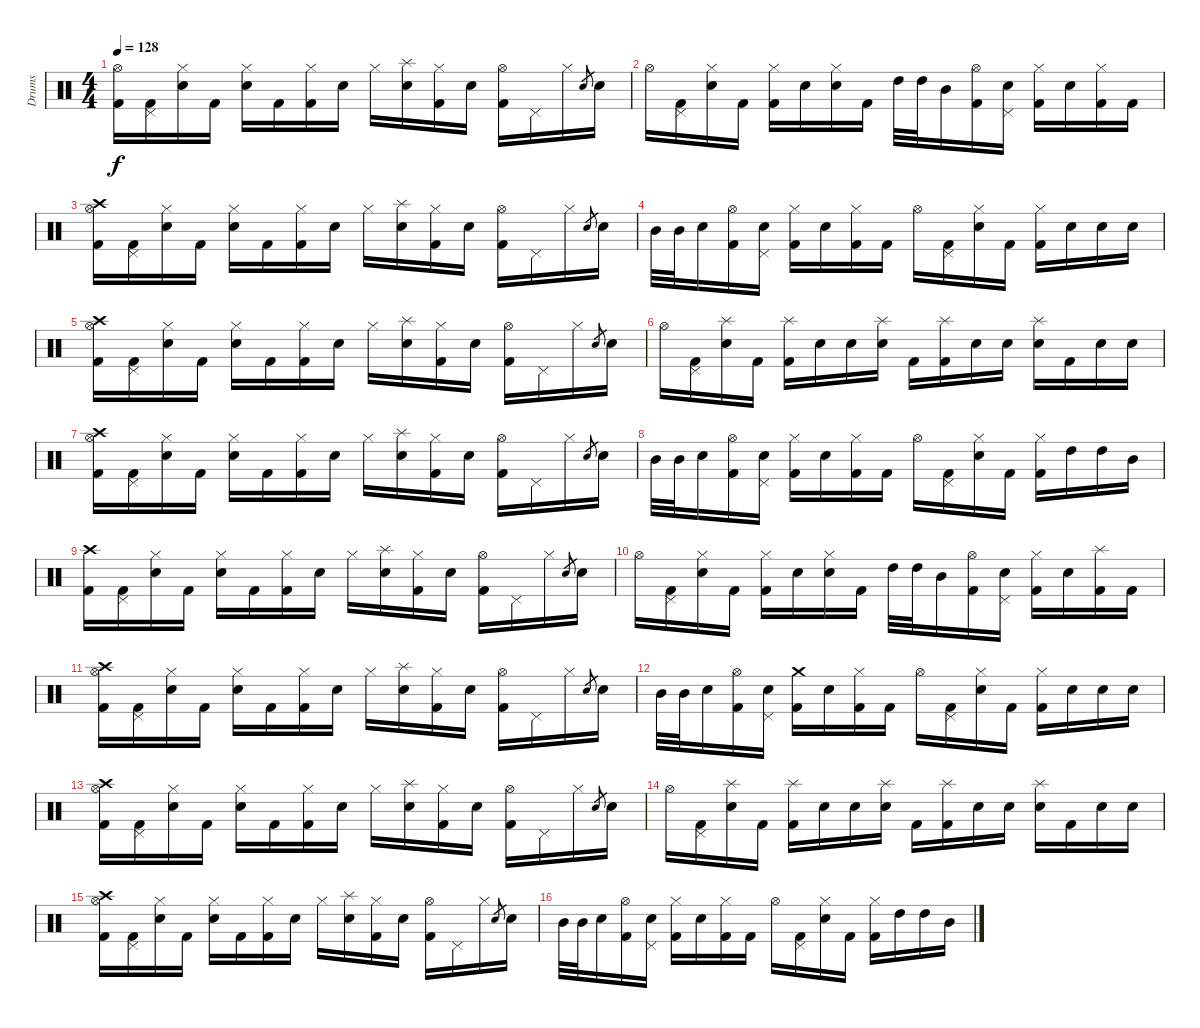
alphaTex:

\track ("Drums" "Drums") {instrument percussion}
\staff {score}
\articulation defaults
\ts (4 4)
\tempo 128
\clef neutral
\ks c
("Hi-Hat (open)" "Kick (hit) 2").16{dy f} ("Pedal Hi-Hat (hit)" "Kick (hit) 2").16 ("Hi-Hat (closed)" "Electric Snare (hit)").16 "Kick (hit) 2".16 ("Hi-Hat (closed)" "Electric Snare (hit)").16 "Kick (hit) 2".16 ("Hi-Hat (closed)" "Kick (hit) 2").16 "Electric Snare (hit)".16 "Hi-Hat (closed)".16 ("Splash (hit)" "Electric Snare (hit)").16 ("Hi-Hat (closed)" "Kick (hit) 2").16 "Electric Snare (hit)".16 ("Hi-Hat (open)" "Kick (hit) 2").16 "Pedal Hi-Hat (hit)".16 "Hi-Hat (closed)".16 "Electric Snare (hit)"{h}.8{gr} "Electric Snare (hit)".16 |
"Hi-Hat (open)".16 ("Pedal Hi-Hat (hit)" "Kick (hit) 2").16 ("Hi-Hat (closed)" "Electric Snare (hit)").16 "Kick (hit) 2".16 ("Hi-Hat (closed)" "Kick (hit) 2").16 "Electric Snare (hit)".16 ("Hi-Hat (closed)" "Electric Snare (hit)").16 "Kick (hit) 2".16 "High Tom (hit)".32 "High Tom (hit)".32 "Mid Tom (hit)".16 ("Hi-Hat (open)" "Kick (hit) 2").16 ("Pedal Hi-Hat (hit)" "Electric Snare (hit)").16 ("Hi-Hat (closed)" "Kick (hit) 2").16 "Electric Snare (hit)".16 ("Hi-Hat (closed)" "Kick (hit) 2").16 "Kick (hit) 2".16 |
("Crash high (hit)" "Hi-Hat (open)" "Kick (hit) 2").16 ("Pedal Hi-Hat (hit)" "Kick (hit) 2").16 ("Hi-Hat (closed)" "Electric Snare (hit)").16 "Kick (hit) 2".16 ("Hi-Hat (closed)" "Electric Snare (hit)").16 "Kick (hit) 2".16 ("Hi-Hat (closed)" "Kick (hit) 2").16 "Electric Snare (hit)".16 "Hi-Hat (closed)".16 ("Splash (hit)" "Electric Snare (hit)").16 ("Hi-Hat (closed)" "Kick (hit) 2").16 "Electric Snare (hit)".16 ("Hi-Hat (open)" "Kick (hit) 2").16 "Pedal Hi-Hat (hit)".16 "Hi-Hat (closed)".16 "Electric Snare (hit)"{h}.8{gr} "Electric Snare (hit)".16 |
"Mid Tom (hit)".32 "Mid Tom (hit)".32 "Electric Snare (hit)".16 ("Hi-Hat (open)" "Kick (hit) 2").16 ("Pedal Hi-Hat (hit)" "Electric Snare (hit)").16 ("Hi-Hat (closed)" "Kick (hit) 2").16 "Electric Snare (hit)".16 ("Hi-Hat (closed)" "Kick (hit) 2").16 "Kick (hit) 2".16 "Hi-Hat (open)".16 ("Pedal Hi-Hat (hit)" "Kick (hit) 2").16 ("Hi-Hat (closed)" "Electric Snare (hit)").16 "Kick (hit) 2".16 ("Hi-Hat (closed)" "Kick (hit) 2").16 "Electric Snare (hit)".16 "Electric Snare (hit)".16 "Electric Snare (hit)".16 |
("Crash high (hit)" "Hi-Hat (open)" "Kick (hit) 2").16 ("Pedal Hi-Hat (hit)" "Kick (hit) 2").16 ("Hi-Hat (closed)" "Electric Snare (hit)").16 "Kick (hit) 2".16 ("Hi-Hat (closed)" "Electric Snare (hit)").16 "Kick (hit) 2".16 ("Hi-Hat (closed)" "Kick (hit) 2").16 "Electric Snare (hit)".16 "Hi-Hat (closed)".16 ("Splash (hit)" "Electric Snare (hit)").16 ("Hi-Hat (closed)" "Kick (hit) 2").16 "Electric Snare (hit)".16 ("Hi-Hat (open)" "Kick (hit) 2").16 "Pedal Hi-Hat (hit)".16 "Hi-Hat (closed)".16 "Electric Snare (hit)"{h}.8{gr} "Electric Snare (hit)".16 |
"Hi-Hat (open)".16 ("Pedal Hi-Hat (hit)" "Kick (hit) 2").16 ("Splash (hit)" "Electric Snare (hit)").16 "Kick (hit) 2".16 ("Splash (hit)" "Kick (hit) 2").16 "Electric Snare (hit)".16 "Electric Snare (hit)".16 ("Splash (hit)" "Electric Snare (hit)").16 "Kick (hit) 2".16 ("Splash (hit)" "Kick (hit) 2").16 "Electric Snare (hit)".16 "Electric Snare (hit)".16 ("Splash (hit)" "Electric Snare (hit)").16 "Kick (hit) 2".16 "Electric Snare (hit)".16 "Electric Snare (hit)".16 |
("Crash high (hit)" "Hi-Hat (open)" "Kick (hit) 2").16 ("Pedal Hi-Hat (hit)" "Kick (hit) 2").16 ("Hi-Hat (closed)" "Electric Snare (hit)").16 "Kick (hit) 2".16 ("Hi-Hat (closed)" "Electric Snare (hit)").16 "Kick (hit) 2".16 ("Hi-Hat (closed)" "Kick (hit) 2").16 "Electric Snare (hit)".16 "Hi-Hat (closed)".16 ("Splash (hit)" "Electric Snare (hit)").16 ("Hi-Hat (closed)" "Kick (hit) 2").16 "Electric Snare (hit)".16 ("Hi-Hat (open)" "Kick (hit) 2").16 "Pedal Hi-Hat (hit)".16 "Hi-Hat (closed)".16 "Electric Snare (hit)"{h}.8{gr} "Electric Snare (hit)".16 |
"Mid Tom (hit)".32 "Mid Tom (hit)".32 "Electric Snare (hit)".16 ("Hi-Hat (open)" "Kick (hit) 2").16 ("Pedal Hi-Hat (hit)" "Electric Snare (hit)").16 ("Hi-Hat (closed)" "Kick (hit) 2").16 "Electric Snare (hit)".16 ("Hi-Hat (closed)" "Kick (hit) 2").16 "Kick (hit) 2".16 "Hi-Hat (open)".16 ("Pedal Hi-Hat (hit)" "Kick (hit) 2").16 ("Hi-Hat (closed)" "Electric Snare (hit)").16 "Kick (hit) 2".16 ("Hi-Hat (closed)" "Kick (hit) 2").16 "High Tom (hit)".16 "High Tom (hit)".16 "Mid Tom (hit)".16 |
("Crash high (hit)" "Kick (hit) 2").16{volume 10} ("Pedal Hi-Hat (hit)" "Kick (hit) 2").16 ("Hi-Hat (closed)" "Electric Snare (hit)").16 "Kick (hit) 2".16 ("Hi-Hat (closed)" "Electric Snare (hit)").16 "Kick (hit) 2".16 ("Hi-Hat (closed)" "Kick (hit) 2").16 "Electric Snare (hit)".16 "Hi-Hat (closed)".16 ("Splash (hit)" "Electric Snare (hit)").16 ("Hi-Hat (closed)" "Kick (hit) 2").16 "Electric Snare (hit)".16 ("Hi-Hat (open)" "Kick (hit) 2").16 "Pedal Hi-Hat (hit)".16 "Hi-Hat (closed)".16 "Electric Snare (hit)"{h}.8{gr} "Electric Snare (hit)".16 |
"Hi-Hat (open)".16 ("Pedal Hi-Hat (hit)" "Kick (hit) 2").16 ("Hi-Hat (closed)" "Electric Snare (hit)").16 "Kick (hit) 2".16 ("Hi-Hat (closed)" "Kick (hit) 2").16 "Electric Snare (hit)".16 ("Hi-Hat (closed)" "Electric Snare (hit)").16 "Kick (hit) 2".16 "High Tom (hit)".32 "High Tom (hit)".32 "Mid Tom (hit)".16 ("Hi-Hat (open)" "Kick (hit) 2").16 ("Pedal Hi-Hat (hit)" "Electric Snare (hit)").16 ("Hi-Hat (closed)" "Kick (hit) 2").16 "Electric Snare (hit)".16 ("Splash (hit)" "Kick (hit) 2").16 "Kick (hit) 2".16 |
("Crash high (hit)" "Hi-Hat (open)" "Kick (hit) 2").16 ("Pedal Hi-Hat (hit)" "Kick (hit) 2").16 ("Hi-Hat (closed)" "Electric Snare (hit)").16 "Kick (hit) 2".16 ("Hi-Hat (closed)" "Electric Snare (hit)").16 "Kick (hit) 2".16 ("Hi-Hat (closed)" "Kick (hit) 2").16 "Electric Snare (hit)".16 "Hi-Hat (closed)".16 ("Splash (hit)" "Electric Snare (hit)").16 ("Hi-Hat (closed)" "Kick (hit) 2").16 "Electric Snare (hit)".16 ("Hi-Hat (open)" "Kick (hit) 2").16 "Pedal Hi-Hat (hit)".16 "Hi-Hat (closed)".16 "Electric Snare (hit)"{h}.8{gr} "Electric Snare (hit)".16 |
"Mid Tom (hit)".32 "Mid Tom (hit)".32 "Electric Snare (hit)".16 ("Hi-Hat (open)" "Kick (hit) 2").16 ("Pedal Hi-Hat (hit)" "Electric Snare (hit)").16 ("Crash medium (hit)" "Kick (hit) 2").16 "Electric Snare (hit)".16 ("Hi-Hat (closed)" "Kick (hit) 2").16 "Kick (hit) 2".16 "Hi-Hat (open)".16 ("Pedal Hi-Hat (hit)" "Kick (hit) 2").16 ("Hi-Hat (closed)" "Electric Snare (hit)").16 "Kick (hit) 2".16 ("Hi-Hat (closed)" "Kick (hit) 2").16 "Electric Snare (hit)".16 "Electric Snare (hit)".16 "Electric Snare (hit)".16 |
("Crash high (hit)" "Hi-Hat (open)" "Kick (hit) 2").16 ("Pedal Hi-Hat (hit)" "Kick (hit) 2").16 ("Hi-Hat (closed)" "Electric Snare (hit)").16 "Kick (hit) 2".16 ("Hi-Hat (closed)" "Electric Snare (hit)").16 "Kick (hit) 2".16 ("Hi-Hat (closed)" "Kick (hit) 2").16 "Electric Snare (hit)".16 "Hi-Hat (closed)".16 ("Splash (hit)" "Electric Snare (hit)").16 ("Hi-Hat (closed)" "Kick (hit) 2").16 "Electric Snare (hit)".16 ("Hi-Hat (open)" "Kick (hit) 2").16 "Pedal Hi-Hat (hit)".16 "Hi-Hat (closed)".16 "Electric Snare (hit)"{h}.8{gr} "Electric Snare (hit)".16 |
"Hi-Hat (open)".16 ("Pedal Hi-Hat (hit)" "Kick (hit) 2").16 ("Splash (hit)" "Electric Snare (hit)").16 "Kick (hit) 2".16 ("Splash (hit)" "Kick (hit) 2").16 "Electric Snare (hit)".16 "Electric Snare (hit)".16 ("Splash (hit)" "Electric Snare (hit)").16 "Kick (hit) 2".16 ("Splash (hit)" "Kick (hit) 2").16 "Electric Snare (hit)".16 "Electric Snare (hit)".16 ("Splash (hit)" "Electric Snare (hit)").16 "Kick (hit) 2".16 "Electric Snare (hit)".16 "Electric Snare (hit)".16 |
("Crash high (hit)" "Hi-Hat (open)" "Kick (hit) 2").16 ("Pedal Hi-Hat (hit)" "Kick (hit) 2").16 ("Hi-Hat (closed)" "Electric Snare (hit)").16 "Kick (hit) 2".16 ("Hi-Hat (closed)" "Electric Snare (hit)").16 "Kick (hit) 2".16 ("Hi-Hat (closed)" "Kick (hit) 2").16 "Electric Snare (hit)".16 "Hi-Hat (closed)".16 ("Splash (hit)" "Electric Snare (hit)").16 ("Hi-Hat (closed)" "Kick (hit) 2").16 "Electric Snare (hit)".16 ("Hi-Hat (open)" "Kick (hit) 2").16 "Pedal Hi-Hat (hit)".16 "Hi-Hat (closed)".16 "Electric Snare (hit)"{h}.8{gr} "Electric Snare (hit)".16 |
"Mid Tom (hit)".32 "Mid Tom (hit)".32 "Electric Snare (hit)".16 ("Hi-Hat (open)" "Kick (hit) 2").16 ("Pedal Hi-Hat (hit)" "Electric Snare (hit)").16 ("Hi-Hat (closed)" "Kick (hit) 2").16 "Electric Snare (hit)".16 ("Hi-Hat (closed)" "Kick (hit) 2").16 "Kick (hit) 2".16 "Hi-Hat (open)".16 ("Pedal Hi-Hat (hit)" "Kick (hit) 2").16 ("Hi-Hat (closed)" "Electric Snare (hit)").16 "Kick (hit) 2".16 ("Hi-Hat (closed)" "Kick (hit) 2").16 "High Tom (hit)".16 "High Tom (hit)".16 "Mid Tom (hit)".16
